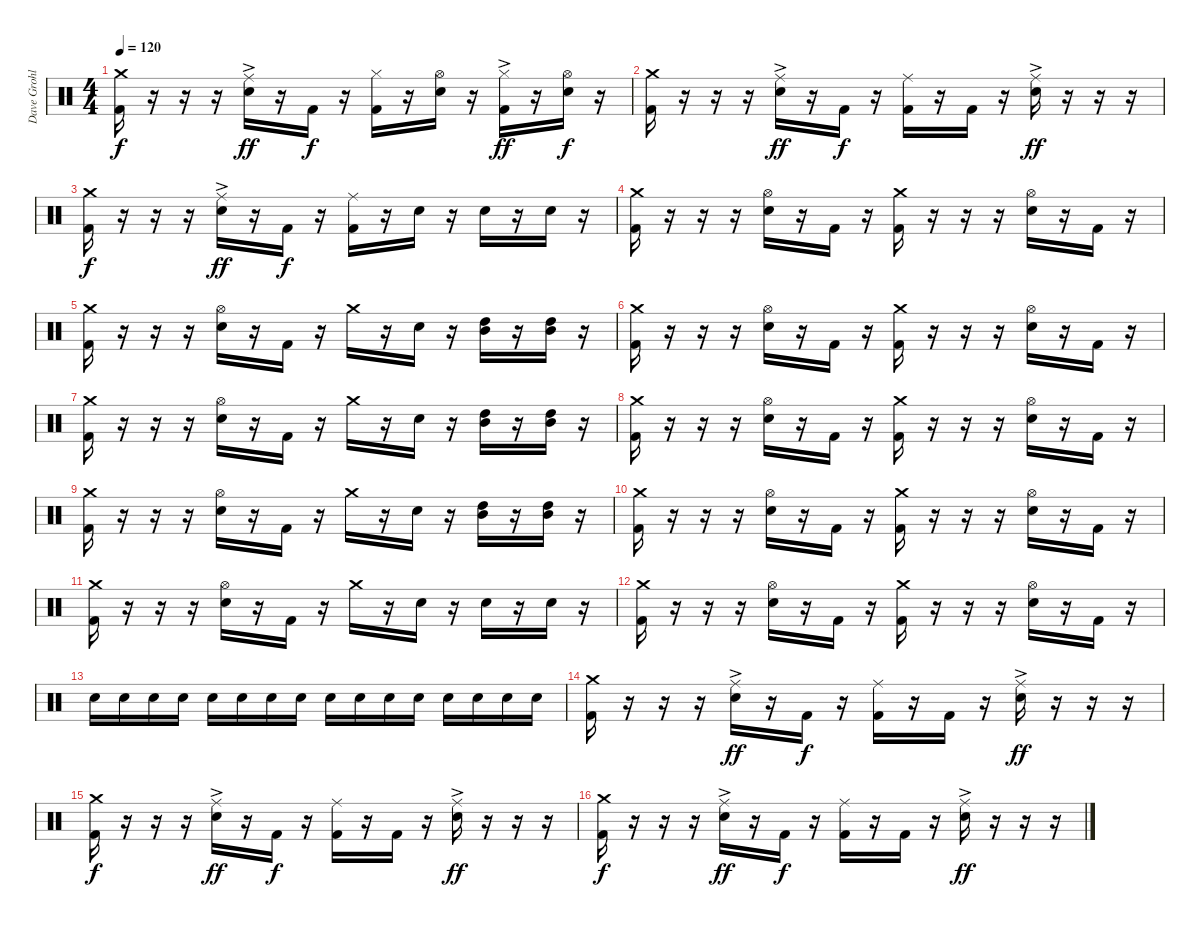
\track ("Dave Grohl" "Dave Grohl") {instrument percussion}
\staff {score}
\articulation defaults
\ts (4 4)
\tempo 120
\clef neutral
\ks c
("Crash medium (hit)" "Kick (hit) 2").16{dy f} r.16 r.16 r.16 ("Ride (middle)"{ac} "Electric Snare (hit)").16{dy ff} r.16 "Kick (hit) 2".16{dy f} r.16 ("Hi-Hat (closed)" "Kick (hit) 2").16 r.16 ("Hi-Hat (open)" "Electric Snare (hit)").16 r.16 ("Hi-Hat (closed)"{ac} "Kick (hit) 2").16{dy ff} r.16 ("Hi-Hat (open)" "Electric Snare (hit)").16{dy f} r.16 |
("Crash medium (hit)" "Kick (hit) 2").16 r.16 r.16 r.16 ("Ride (middle)"{ac} "Electric Snare (hit)").16{dy ff} r.16 "Kick (hit) 2".16{dy f} r.16 ("Ride (middle)" "Kick (hit) 2").16 r.16 "Kick (hit) 2".16 r.16 ("Ride (middle)"{ac} "Electric Snare (hit)").16{dy ff} r.16 r.16 r.16 |
("Crash medium (hit)" "Kick (hit) 2").16{dy f} r.16 r.16 r.16 ("Ride (middle)"{ac} "Electric Snare (hit)").16{dy ff} r.16 "Kick (hit) 2".16{dy f} r.16 ("Ride (middle)" "Kick (hit) 2").16 r.16 "Electric Snare (hit)".16 r.16 "Electric Snare (hit)".16 r.16 "Electric Snare (hit)".16 r.16 |
("Crash medium (hit)" "Kick (hit) 2").16 r.16 r.16 r.16 ("Hi-Hat (open)" "Electric Snare (hit)").16 r.16 "Kick (hit) 2".16 r.16 ("Crash medium (hit)" "Kick (hit) 2").16 r.16 r.16 r.16 ("Hi-Hat (open)" "Electric Snare (hit)").16 r.16 "Kick (hit) 2".16 r.16 |
("Crash medium (hit)" "Kick (hit) 2").16 r.16 r.16 r.16 ("Hi-Hat (open)" "Electric Snare (hit)").16 r.16 "Kick (hit) 2".16 r.16 "Crash medium (hit)".16 r.16 "Electric Snare (hit)".16 r.16 ("High Tom (hit)" "Mid Tom (hit)").16 r.16 ("High Tom (hit)" "Mid Tom (hit)").16 r.16 |
("Crash medium (hit)" "Kick (hit) 2").16 r.16 r.16 r.16 ("Hi-Hat (open)" "Electric Snare (hit)").16 r.16 "Kick (hit) 2".16 r.16 ("Crash medium (hit)" "Kick (hit) 2").16 r.16 r.16 r.16 ("Hi-Hat (open)" "Electric Snare (hit)").16 r.16 "Kick (hit) 2".16 r.16 |
("Crash medium (hit)" "Kick (hit) 2").16 r.16 r.16 r.16 ("Hi-Hat (open)" "Electric Snare (hit)").16 r.16 "Kick (hit) 2".16 r.16 "Crash medium (hit)".16 r.16 "Electric Snare (hit)".16 r.16 ("High Tom (hit)" "Mid Tom (hit)").16 r.16 ("High Tom (hit)" "Mid Tom (hit)").16 r.16 |
("Crash medium (hit)" "Kick (hit) 2").16 r.16 r.16 r.16 ("Hi-Hat (open)" "Electric Snare (hit)").16 r.16 "Kick (hit) 2".16 r.16 ("Crash medium (hit)" "Kick (hit) 2").16 r.16 r.16 r.16 ("Hi-Hat (open)" "Electric Snare (hit)").16 r.16 "Kick (hit) 2".16 r.16 |
("Crash medium (hit)" "Kick (hit) 2").16 r.16 r.16 r.16 ("Hi-Hat (open)" "Electric Snare (hit)").16 r.16 "Kick (hit) 2".16 r.16 "Crash medium (hit)".16 r.16 "Electric Snare (hit)".16 r.16 ("High Tom (hit)" "Mid Tom (hit)").16 r.16 ("High Tom (hit)" "Mid Tom (hit)").16 r.16 |
("Crash medium (hit)" "Kick (hit) 2").16 r.16 r.16 r.16 ("Hi-Hat (open)" "Electric Snare (hit)").16 r.16 "Kick (hit) 2".16 r.16 ("Crash medium (hit)" "Kick (hit) 2").16 r.16 r.16 r.16 ("Hi-Hat (open)" "Electric Snare (hit)").16 r.16 "Kick (hit) 2".16 r.16 |
("Crash medium (hit)" "Kick (hit) 2").16 r.16 r.16 r.16 ("Hi-Hat (open)" "Electric Snare (hit)").16 r.16 "Kick (hit) 2".16 r.16 "Crash medium (hit)".16 r.16 "Electric Snare (hit)".16 r.16 "Electric Snare (hit)".16 r.16 "Electric Snare (hit)".16 r.16 |
("Crash medium (hit)" "Kick (hit) 2").16 r.16 r.16 r.16 ("Hi-Hat (open)" "Electric Snare (hit)").16 r.16 "Kick (hit) 2".16 r.16 ("Crash medium (hit)" "Kick (hit) 2").16 r.16 r.16 r.16 ("Hi-Hat (open)" "Electric Snare (hit)").16 r.16 "Kick (hit) 2".16 r.16 |
"Electric Snare (hit)".16 "Electric Snare (hit)".16 "Electric Snare (hit)".16 "Electric Snare (hit)".16 "Electric Snare (hit)".16 "Electric Snare (hit)".16 "Electric Snare (hit)".16 "Electric Snare (hit)".16 "Electric Snare (hit)".16 "Electric Snare (hit)".16 "Electric Snare (hit)".16 "Electric Snare (hit)".16 "Electric Snare (hit)".16 "Electric Snare (hit)".16 "Electric Snare (hit)".16 "Electric Snare (hit)".16 |
("Crash medium (hit)" "Kick (hit) 2").16 r.16 r.16 r.16 ("Ride (middle)"{ac} "Electric Snare (hit)").16{dy ff} r.16 "Kick (hit) 2".16{dy f} r.16 ("Ride (middle)" "Kick (hit) 2").16 r.16 "Kick (hit) 2".16 r.16 ("Ride (middle)"{ac} "Electric Snare (hit)").16{dy ff} r.16 r.16 r.16 |
("Crash medium (hit)" "Kick (hit) 2").16{dy f} r.16 r.16 r.16 ("Ride (middle)"{ac} "Electric Snare (hit)").16{dy ff} r.16 "Kick (hit) 2".16{dy f} r.16 ("Ride (middle)" "Kick (hit) 2").16 r.16 "Kick (hit) 2".16 r.16 ("Ride (middle)"{ac} "Electric Snare (hit)").16{dy ff} r.16 r.16 r.16 |
("Crash medium (hit)" "Kick (hit) 2").16{dy f} r.16 r.16 r.16 ("Ride (middle)"{ac} "Electric Snare (hit)").16{dy ff} r.16 "Kick (hit) 2".16{dy f} r.16 ("Ride (middle)" "Kick (hit) 2").16 r.16 "Kick (hit) 2".16 r.16 ("Ride (middle)"{ac} "Electric Snare (hit)").16{dy ff} r.16 r.16 r.16
